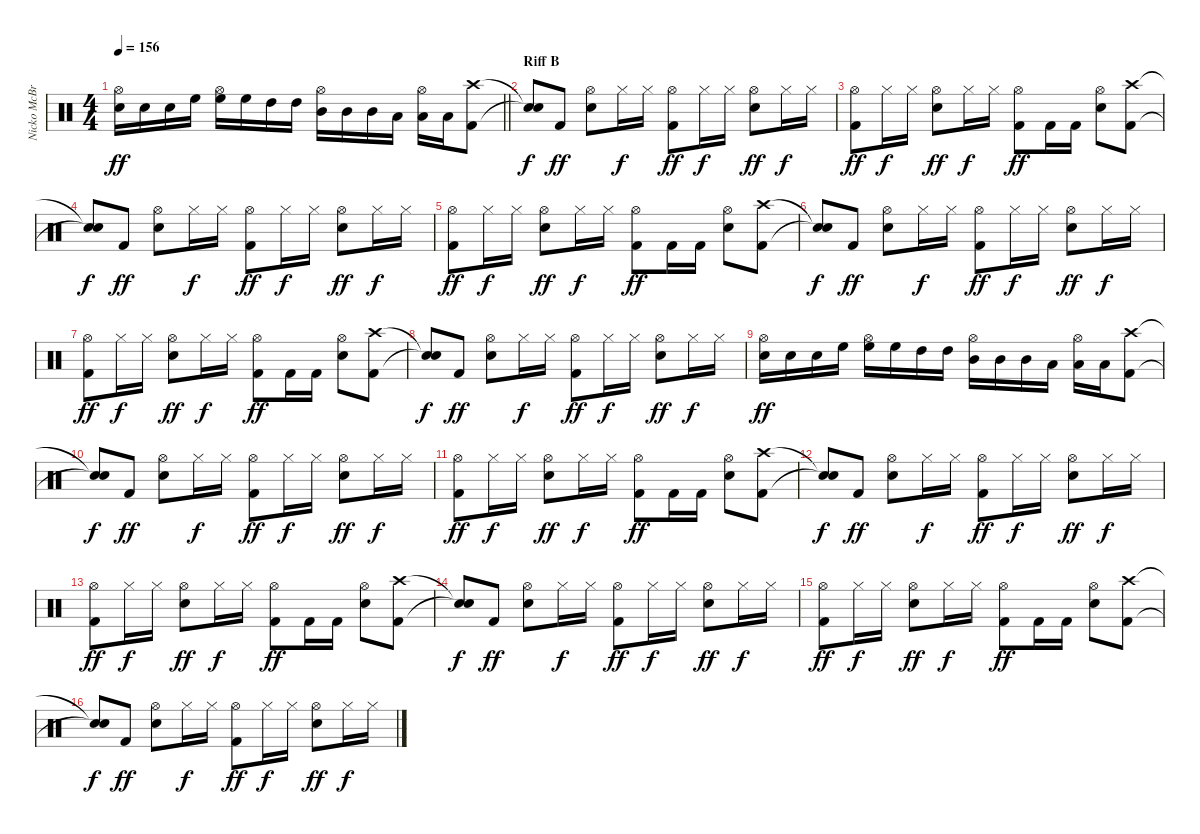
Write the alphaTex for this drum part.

\track ("Nicko McBrain" "Nicko McBr") {instrument percussion}
\staff {score}
\articulation defaults
\ts (4 4)
\tempo 156
\clef neutral
\barLineRight lightlight
\ks c
("Snare (hit) 2" "Hi-Hat (open)").16{dy ff} "Snare (hit) 2".16 "Snare (hit) 2".16 "High Floor Tom (hit)".16 ("Hi-Hat (open)" "High Floor Tom (hit)").16 "High Floor Tom (hit)".16 "High Tom (hit)".16 "High Tom (hit)".16 ("Hi-Hat (open)" "Mid Tom (hit)").16 "Mid Tom (hit)".16 "Mid Tom (hit)".16 "Low Tom (hit)".16 ("Low Tom (hit)" "Hi-Hat (open)").16 "Low Tom (hit)".16 ("Kick (hit) 2" "Crash high (hit)").8 |
\section ("" "Riff B")
("Snare (hit)"{t} "Snare (hit)"{t}).8{dy f} "Kick (hit) 2".8{dy ff} ("Snare (hit) 2" "Hi-Hat (open)").8 "Hi-Hat (closed)".16{dy f} "Hi-Hat (closed)".16 ("Kick (hit) 2" "Hi-Hat (open)").8{dy ff} "Hi-Hat (closed)".16{dy f} "Hi-Hat (closed)".16 ("Snare (hit) 2" "Hi-Hat (open)").8{dy ff} "Hi-Hat (closed)".16{dy f} "Hi-Hat (closed)".16 |
("Kick (hit) 2" "Hi-Hat (open)").8{dy ff} "Hi-Hat (closed)".16{dy f} "Hi-Hat (closed)".16 ("Snare (hit) 2" "Hi-Hat (open)").8{dy ff} "Hi-Hat (closed)".16{dy f} "Hi-Hat (closed)".16 ("Kick (hit) 2" "Hi-Hat (open)").8{dy ff} "Kick (hit) 2".16 "Kick (hit) 2".16 ("Snare (hit) 2" "Hi-Hat (open)").8 ("Kick (hit) 2" "Crash high (hit)").8 |
("Snare (hit)"{t} "Snare (hit)"{t}).8{dy f} "Kick (hit) 2".8{dy ff} ("Snare (hit) 2" "Hi-Hat (open)").8 "Hi-Hat (closed)".16{dy f} "Hi-Hat (closed)".16 ("Kick (hit) 2" "Hi-Hat (open)").8{dy ff} "Hi-Hat (closed)".16{dy f} "Hi-Hat (closed)".16 ("Snare (hit) 2" "Hi-Hat (open)").8{dy ff} "Hi-Hat (closed)".16{dy f} "Hi-Hat (closed)".16 |
("Kick (hit) 2" "Hi-Hat (open)").8{dy ff} "Hi-Hat (closed)".16{dy f} "Hi-Hat (closed)".16 ("Snare (hit) 2" "Hi-Hat (open)").8{dy ff} "Hi-Hat (closed)".16{dy f} "Hi-Hat (closed)".16 ("Kick (hit) 2" "Hi-Hat (open)").8{dy ff} "Kick (hit) 2".16 "Kick (hit) 2".16 ("Snare (hit) 2" "Hi-Hat (open)").8 ("Kick (hit) 2" "Crash high (hit)").8 |
("Snare (hit)"{t} "Snare (hit)"{t}).8{dy f} "Kick (hit) 2".8{dy ff} ("Snare (hit) 2" "Hi-Hat (open)").8 "Hi-Hat (closed)".16{dy f} "Hi-Hat (closed)".16 ("Kick (hit) 2" "Hi-Hat (open)").8{dy ff} "Hi-Hat (closed)".16{dy f} "Hi-Hat (closed)".16 ("Snare (hit) 2" "Hi-Hat (open)").8{dy ff} "Hi-Hat (closed)".16{dy f} "Hi-Hat (closed)".16 |
("Kick (hit) 2" "Hi-Hat (open)").8{dy ff} "Hi-Hat (closed)".16{dy f} "Hi-Hat (closed)".16 ("Snare (hit) 2" "Hi-Hat (open)").8{dy ff} "Hi-Hat (closed)".16{dy f} "Hi-Hat (closed)".16 ("Kick (hit) 2" "Hi-Hat (open)").8{dy ff} "Kick (hit) 2".16 "Kick (hit) 2".16 ("Snare (hit) 2" "Hi-Hat (open)").8 ("Kick (hit) 2" "Crash high (hit)").8 |
("Snare (hit)"{t} "Snare (hit)"{t}).8{dy f} "Kick (hit) 2".8{dy ff} ("Snare (hit) 2" "Hi-Hat (open)").8 "Hi-Hat (closed)".16{dy f} "Hi-Hat (closed)".16 ("Kick (hit) 2" "Hi-Hat (open)").8{dy ff} "Hi-Hat (closed)".16{dy f} "Hi-Hat (closed)".16 ("Snare (hit) 2" "Hi-Hat (open)").8{dy ff} "Hi-Hat (closed)".16{dy f} "Hi-Hat (closed)".16 |
("Snare (hit) 2" "Hi-Hat (open)").16{dy ff} "Snare (hit) 2".16 "Snare (hit) 2".16 "High Floor Tom (hit)".16 ("Hi-Hat (open)" "High Floor Tom (hit)").16 "High Floor Tom (hit)".16 "High Tom (hit)".16 "High Tom (hit)".16 ("Hi-Hat (open)" "Mid Tom (hit)").16 "Mid Tom (hit)".16 "Mid Tom (hit)".16 "Low Tom (hit)".16 ("Low Tom (hit)" "Hi-Hat (open)").16 "Low Tom (hit)".16 ("Kick (hit) 2" "Crash high (hit)").8 |
("Snare (hit)"{t} "Snare (hit)"{t}).8{dy f} "Kick (hit) 2".8{dy ff} ("Snare (hit) 2" "Hi-Hat (open)").8 "Hi-Hat (closed)".16{dy f} "Hi-Hat (closed)".16 ("Kick (hit) 2" "Hi-Hat (open)").8{dy ff} "Hi-Hat (closed)".16{dy f} "Hi-Hat (closed)".16 ("Snare (hit) 2" "Hi-Hat (open)").8{dy ff} "Hi-Hat (closed)".16{dy f} "Hi-Hat (closed)".16 |
("Kick (hit) 2" "Hi-Hat (open)").8{dy ff} "Hi-Hat (closed)".16{dy f} "Hi-Hat (closed)".16 ("Snare (hit) 2" "Hi-Hat (open)").8{dy ff} "Hi-Hat (closed)".16{dy f} "Hi-Hat (closed)".16 ("Kick (hit) 2" "Hi-Hat (open)").8{dy ff} "Kick (hit) 2".16 "Kick (hit) 2".16 ("Snare (hit) 2" "Hi-Hat (open)").8 ("Kick (hit) 2" "Crash high (hit)").8 |
("Snare (hit)"{t} "Snare (hit)"{t}).8{dy f} "Kick (hit) 2".8{dy ff} ("Snare (hit) 2" "Hi-Hat (open)").8 "Hi-Hat (closed)".16{dy f} "Hi-Hat (closed)".16 ("Kick (hit) 2" "Hi-Hat (open)").8{dy ff} "Hi-Hat (closed)".16{dy f} "Hi-Hat (closed)".16 ("Snare (hit) 2" "Hi-Hat (open)").8{dy ff} "Hi-Hat (closed)".16{dy f} "Hi-Hat (closed)".16 |
("Kick (hit) 2" "Hi-Hat (open)").8{dy ff} "Hi-Hat (closed)".16{dy f} "Hi-Hat (closed)".16 ("Snare (hit) 2" "Hi-Hat (open)").8{dy ff} "Hi-Hat (closed)".16{dy f} "Hi-Hat (closed)".16 ("Kick (hit) 2" "Hi-Hat (open)").8{dy ff} "Kick (hit) 2".16 "Kick (hit) 2".16 ("Snare (hit) 2" "Hi-Hat (open)").8 ("Kick (hit) 2" "Crash high (hit)").8 |
("Snare (hit)"{t} "Snare (hit)"{t}).8{dy f} "Kick (hit) 2".8{dy ff} ("Snare (hit) 2" "Hi-Hat (open)").8 "Hi-Hat (closed)".16{dy f} "Hi-Hat (closed)".16 ("Kick (hit) 2" "Hi-Hat (open)").8{dy ff} "Hi-Hat (closed)".16{dy f} "Hi-Hat (closed)".16 ("Snare (hit) 2" "Hi-Hat (open)").8{dy ff} "Hi-Hat (closed)".16{dy f} "Hi-Hat (closed)".16 |
("Kick (hit) 2" "Hi-Hat (open)").8{dy ff} "Hi-Hat (closed)".16{dy f} "Hi-Hat (closed)".16 ("Snare (hit) 2" "Hi-Hat (open)").8{dy ff} "Hi-Hat (closed)".16{dy f} "Hi-Hat (closed)".16 ("Kick (hit) 2" "Hi-Hat (open)").8{dy ff} "Kick (hit) 2".16 "Kick (hit) 2".16 ("Snare (hit) 2" "Hi-Hat (open)").8 ("Kick (hit) 2" "Crash high (hit)").8 |
("Snare (hit)"{t} "Snare (hit)"{t}).8{dy f} "Kick (hit) 2".8{dy ff} ("Snare (hit) 2" "Hi-Hat (open)").8 "Hi-Hat (closed)".16{dy f} "Hi-Hat (closed)".16 ("Kick (hit) 2" "Hi-Hat (open)").8{dy ff} "Hi-Hat (closed)".16{dy f} "Hi-Hat (closed)".16 ("Snare (hit) 2" "Hi-Hat (open)").8{dy ff} "Hi-Hat (closed)".16{dy f} "Hi-Hat (closed)".16
